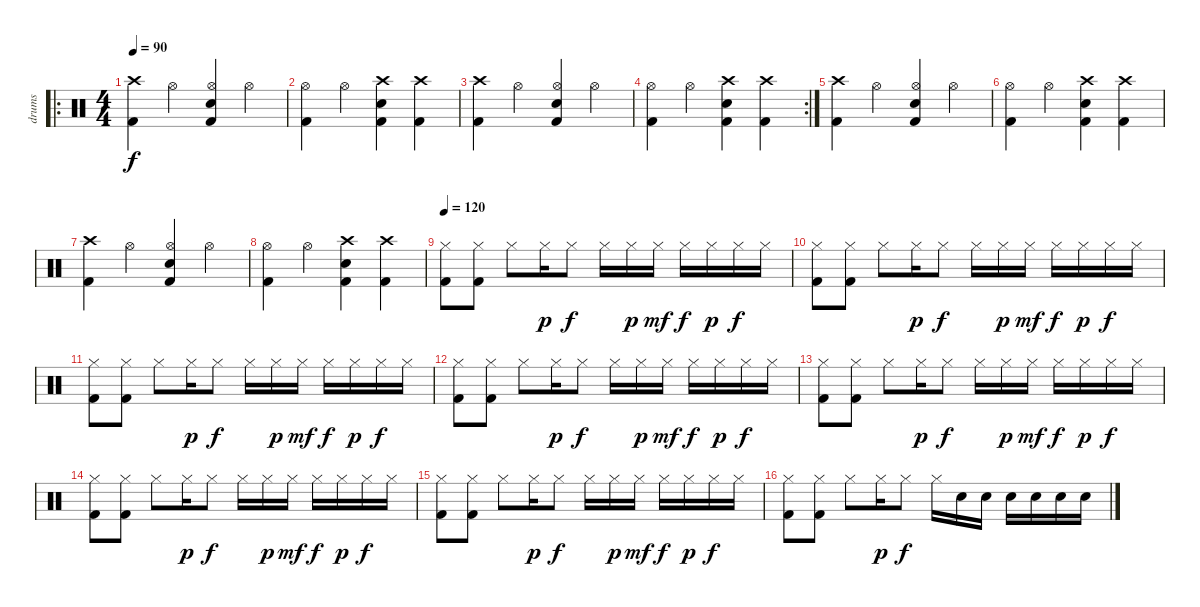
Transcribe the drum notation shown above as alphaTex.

\track ("drums" "drums") {instrument percussion}
\staff {score}
\articulation defaults
\ro
\ts (4 4)
\tempo 90
\clef neutral
\ks c
("Crash high (hit)" "Kick (hit) 2").4{dy f} "Hi-Hat (open)".4 ("Hi-Hat (open)" "Electric Snare (hit)" "Kick (hit) 2").4 "Hi-Hat (open)".4 |
("Hi-Hat (open)" "Kick (hit) 2").4 "Hi-Hat (open)".4 ("Crash high (hit)" "Electric Snare (hit)" "Kick (hit) 2").4 ("Crash high (hit)" "Kick (hit) 2").4 |
("Crash high (hit)" "Kick (hit) 2").4 "Hi-Hat (open)".4 ("Hi-Hat (open)" "Electric Snare (hit)" "Kick (hit) 2").4 "Hi-Hat (open)".4 |
\rc 2
("Hi-Hat (open)" "Kick (hit) 2").4 "Hi-Hat (open)".4 ("Crash high (hit)" "Electric Snare (hit)" "Kick (hit) 2").4 ("Crash high (hit)" "Kick (hit) 2").4 |
("Crash high (hit)" "Kick (hit) 2").4 "Hi-Hat (open)".4 ("Hi-Hat (open)" "Electric Snare (hit)" "Kick (hit) 2").4 "Hi-Hat (open)".4 |
("Hi-Hat (open)" "Kick (hit) 2").4 "Hi-Hat (open)".4 ("Crash high (hit)" "Electric Snare (hit)" "Kick (hit) 2").4 ("Crash high (hit)" "Kick (hit) 2").4 |
("Crash high (hit)" "Kick (hit) 2").4 "Hi-Hat (open)".4 ("Hi-Hat (open)" "Electric Snare (hit)" "Kick (hit) 2").4 "Hi-Hat (open)".4 |
("Hi-Hat (open)" "Kick (hit) 2").4 "Hi-Hat (open)".4 ("Crash high (hit)" "Electric Snare (hit)" "Kick (hit) 2").4 ("Crash high (hit)" "Kick (hit) 2").4 |
\tempo 120
("Hi-Hat (closed)" "Kick (hit) 2").8 ("Hi-Hat (closed)" "Kick (hit) 2").8 "Hi-Hat (closed)".8 "Hi-Hat (closed)".16{dy p} "Hi-Hat (closed)".8{dy f} "Hi-Hat (closed)".16 "Hi-Hat (closed)".16{dy p} "Hi-Hat (closed)".16{dy mf} "Hi-Hat (closed)".16{dy f} "Hi-Hat (closed)".16{dy p} "Hi-Hat (closed)".16{dy f} "Hi-Hat (closed)".16 |
("Hi-Hat (closed)" "Kick (hit) 2").8 ("Hi-Hat (closed)" "Kick (hit) 2").8 "Hi-Hat (closed)".8 "Hi-Hat (closed)".16{dy p} "Hi-Hat (closed)".8{dy f} "Hi-Hat (closed)".16 "Hi-Hat (closed)".16{dy p} "Hi-Hat (closed)".16{dy mf} "Hi-Hat (closed)".16{dy f} "Hi-Hat (closed)".16{dy p} "Hi-Hat (closed)".16{dy f} "Hi-Hat (closed)".16 |
("Hi-Hat (closed)" "Kick (hit) 2").8 ("Hi-Hat (closed)" "Kick (hit) 2").8 "Hi-Hat (closed)".8 "Hi-Hat (closed)".16{dy p} "Hi-Hat (closed)".8{dy f} "Hi-Hat (closed)".16 "Hi-Hat (closed)".16{dy p} "Hi-Hat (closed)".16{dy mf} "Hi-Hat (closed)".16{dy f} "Hi-Hat (closed)".16{dy p} "Hi-Hat (closed)".16{dy f} "Hi-Hat (closed)".16 |
("Hi-Hat (closed)" "Kick (hit) 2").8 ("Hi-Hat (closed)" "Kick (hit) 2").8 "Hi-Hat (closed)".8 "Hi-Hat (closed)".16{dy p} "Hi-Hat (closed)".8{dy f} "Hi-Hat (closed)".16 "Hi-Hat (closed)".16{dy p} "Hi-Hat (closed)".16{dy mf} "Hi-Hat (closed)".16{dy f} "Hi-Hat (closed)".16{dy p} "Hi-Hat (closed)".16{dy f} "Hi-Hat (closed)".16 |
("Hi-Hat (closed)" "Kick (hit) 2").8 ("Hi-Hat (closed)" "Kick (hit) 2").8 "Hi-Hat (closed)".8 "Hi-Hat (closed)".16{dy p} "Hi-Hat (closed)".8{dy f} "Hi-Hat (closed)".16 "Hi-Hat (closed)".16{dy p} "Hi-Hat (closed)".16{dy mf} "Hi-Hat (closed)".16{dy f} "Hi-Hat (closed)".16{dy p} "Hi-Hat (closed)".16{dy f} "Hi-Hat (closed)".16 |
("Hi-Hat (closed)" "Kick (hit) 2").8 ("Hi-Hat (closed)" "Kick (hit) 2").8 "Hi-Hat (closed)".8 "Hi-Hat (closed)".16{dy p} "Hi-Hat (closed)".8{dy f} "Hi-Hat (closed)".16 "Hi-Hat (closed)".16{dy p} "Hi-Hat (closed)".16{dy mf} "Hi-Hat (closed)".16{dy f} "Hi-Hat (closed)".16{dy p} "Hi-Hat (closed)".16{dy f} "Hi-Hat (closed)".16 |
("Hi-Hat (closed)" "Kick (hit) 2").8 ("Hi-Hat (closed)" "Kick (hit) 2").8 "Hi-Hat (closed)".8 "Hi-Hat (closed)".16{dy p} "Hi-Hat (closed)".8{dy f} "Hi-Hat (closed)".16 "Hi-Hat (closed)".16{dy p} "Hi-Hat (closed)".16{dy mf} "Hi-Hat (closed)".16{dy f} "Hi-Hat (closed)".16{dy p} "Hi-Hat (closed)".16{dy f} "Hi-Hat (closed)".16 |
("Hi-Hat (closed)" "Kick (hit) 2").8 ("Hi-Hat (closed)" "Kick (hit) 2").8 "Hi-Hat (closed)".8 "Hi-Hat (closed)".16{dy p} "Hi-Hat (closed)".8{dy f} "Hi-Hat (closed)".16 "Electric Snare (hit)".16 "Electric Snare (hit)".16 "Electric Snare (hit)".16 "Electric Snare (hit)".16 "Electric Snare (hit)".16 "Electric Snare (hit)".16
